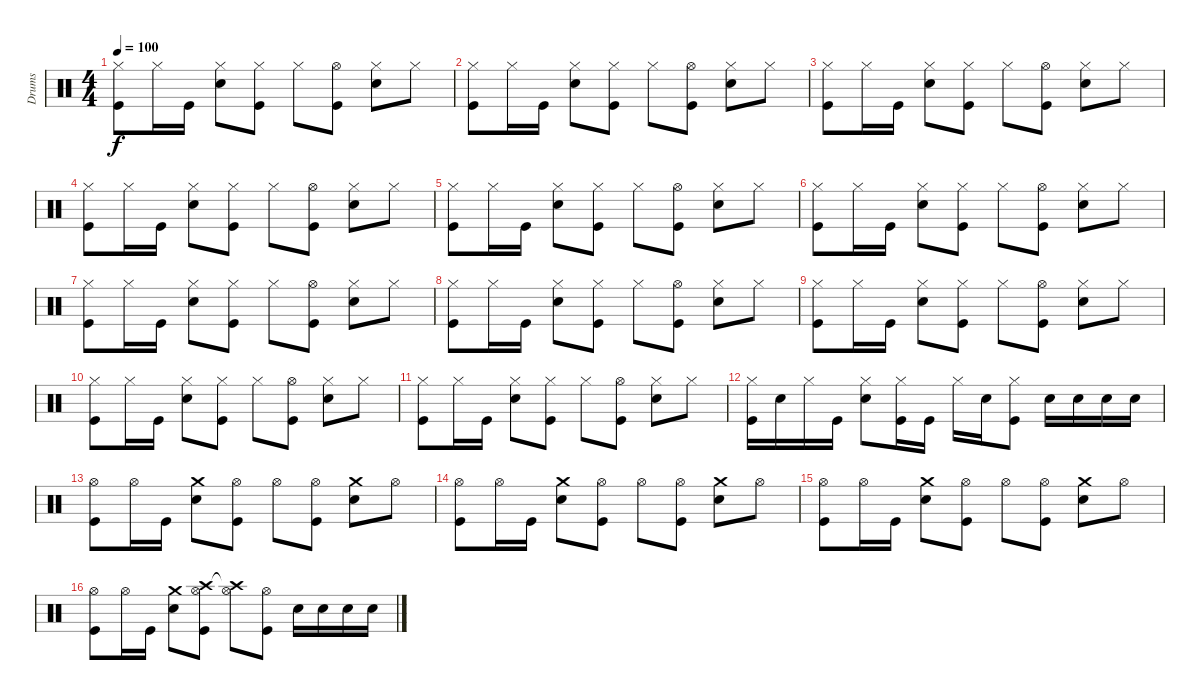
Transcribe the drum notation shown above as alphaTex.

\track ("Drums" "Drums") {instrument percussion}
\staff {score}
\articulation defaults
\ts (4 4)
\tempo 100
\clef neutral
\ks c
("Hi-Hat (closed)" "Kick (hit)").8{dy f} "Hi-Hat (closed)".16 "Kick (hit)".16 ("Hi-Hat (closed)" "Electric Snare (hit)").8 ("Hi-Hat (closed)" "Kick (hit)").8 "Hi-Hat (closed)".8 ("Hi-Hat (open)" "Kick (hit)").8 ("Hi-Hat (closed)" "Electric Snare (hit)").8 "Hi-Hat (closed)".8 |
("Hi-Hat (closed)" "Kick (hit)").8 "Hi-Hat (closed)".16 "Kick (hit)".16 ("Hi-Hat (closed)" "Electric Snare (hit)").8 ("Hi-Hat (closed)" "Kick (hit)").8 "Hi-Hat (closed)".8 ("Hi-Hat (open)" "Kick (hit)").8 ("Hi-Hat (closed)" "Electric Snare (hit)").8 "Hi-Hat (closed)".8 |
("Hi-Hat (closed)" "Kick (hit)").8 "Hi-Hat (closed)".16 "Kick (hit)".16 ("Hi-Hat (closed)" "Electric Snare (hit)").8 ("Hi-Hat (closed)" "Kick (hit)").8 "Hi-Hat (closed)".8 ("Hi-Hat (open)" "Kick (hit)").8 ("Hi-Hat (closed)" "Electric Snare (hit)").8 "Hi-Hat (closed)".8 |
("Hi-Hat (closed)" "Kick (hit)").8 "Hi-Hat (closed)".16 "Kick (hit)".16 ("Hi-Hat (closed)" "Electric Snare (hit)").8 ("Hi-Hat (closed)" "Kick (hit)").8 "Hi-Hat (closed)".8 ("Hi-Hat (open)" "Kick (hit)").8 ("Hi-Hat (closed)" "Electric Snare (hit)").8 "Hi-Hat (closed)".8 |
("Hi-Hat (closed)" "Kick (hit)").8 "Hi-Hat (closed)".16 "Kick (hit)".16 ("Hi-Hat (closed)" "Electric Snare (hit)").8 ("Hi-Hat (closed)" "Kick (hit)").8 "Hi-Hat (closed)".8 ("Hi-Hat (open)" "Kick (hit)").8 ("Hi-Hat (closed)" "Electric Snare (hit)").8 "Hi-Hat (closed)".8 |
("Hi-Hat (closed)" "Kick (hit)").8 "Hi-Hat (closed)".16 "Kick (hit)".16 ("Hi-Hat (closed)" "Electric Snare (hit)").8 ("Hi-Hat (closed)" "Kick (hit)").8 "Hi-Hat (closed)".8 ("Hi-Hat (open)" "Kick (hit)").8 ("Hi-Hat (closed)" "Electric Snare (hit)").8 "Hi-Hat (closed)".8 |
("Hi-Hat (closed)" "Kick (hit)").8 "Hi-Hat (closed)".16 "Kick (hit)".16 ("Hi-Hat (closed)" "Electric Snare (hit)").8 ("Hi-Hat (closed)" "Kick (hit)").8 "Hi-Hat (closed)".8 ("Hi-Hat (open)" "Kick (hit)").8 ("Hi-Hat (closed)" "Electric Snare (hit)").8 "Hi-Hat (closed)".8 |
("Hi-Hat (closed)" "Kick (hit)").8 "Hi-Hat (closed)".16 "Kick (hit)".16 ("Hi-Hat (closed)" "Electric Snare (hit)").8 ("Hi-Hat (closed)" "Kick (hit)").8 "Hi-Hat (closed)".8 ("Hi-Hat (open)" "Kick (hit)").8 ("Hi-Hat (closed)" "Electric Snare (hit)").8 "Hi-Hat (closed)".8 |
("Hi-Hat (closed)" "Kick (hit)").8 "Hi-Hat (closed)".16 "Kick (hit)".16 ("Hi-Hat (closed)" "Electric Snare (hit)").8 ("Hi-Hat (closed)" "Kick (hit)").8 "Hi-Hat (closed)".8 ("Hi-Hat (open)" "Kick (hit)").8 ("Hi-Hat (closed)" "Electric Snare (hit)").8 "Hi-Hat (closed)".8 |
("Hi-Hat (closed)" "Kick (hit)").8 "Hi-Hat (closed)".16 "Kick (hit)".16 ("Hi-Hat (closed)" "Electric Snare (hit)").8 ("Hi-Hat (closed)" "Kick (hit)").8 "Hi-Hat (closed)".8 ("Hi-Hat (open)" "Kick (hit)").8 ("Hi-Hat (closed)" "Electric Snare (hit)").8 "Hi-Hat (closed)".8 |
("Hi-Hat (closed)" "Kick (hit)").8 "Hi-Hat (closed)".16 "Kick (hit)".16 ("Hi-Hat (closed)" "Electric Snare (hit)").8 ("Hi-Hat (closed)" "Kick (hit)").8 "Hi-Hat (closed)".8 ("Hi-Hat (open)" "Kick (hit)").8 ("Hi-Hat (closed)" "Electric Snare (hit)").8 "Hi-Hat (closed)".8 |
("Hi-Hat (closed)" "Kick (hit)").16 "Electric Snare (hit)".16 "Hi-Hat (closed)".16 "Kick (hit)".16 ("Hi-Hat (closed)" "Electric Snare (hit)").8 ("Hi-Hat (closed)" "Kick (hit)").16 "Kick (hit)".16 "Hi-Hat (closed)".16 "Electric Snare (hit)".16 ("Hi-Hat (closed)" "Kick (hit)").8 "Electric Snare (hit)".16 "Electric Snare (hit)".16 "Electric Snare (hit)".16 "Electric Snare (hit)".16 |
("Hi-Hat (open)" "Kick (hit)").8 "Hi-Hat (open)".16 "Kick (hit)".16 ("Crash medium (hit)" "Electric Snare (hit)").8 ("Hi-Hat (open)" "Kick (hit)").8 "Hi-Hat (open)".8 ("Hi-Hat (open)" "Kick (hit)").8 ("Crash medium (hit)" "Electric Snare (hit)").8 "Hi-Hat (open)".8 |
("Hi-Hat (open)" "Kick (hit)").8 "Hi-Hat (open)".16 "Kick (hit)".16 ("Crash medium (hit)" "Electric Snare (hit)").8 ("Hi-Hat (open)" "Kick (hit)").8 "Hi-Hat (open)".8 ("Hi-Hat (open)" "Kick (hit)").8 ("Crash medium (hit)" "Electric Snare (hit)").8 "Hi-Hat (open)".8 |
("Hi-Hat (open)" "Kick (hit)").8 "Hi-Hat (open)".16 "Kick (hit)".16 ("Crash medium (hit)" "Electric Snare (hit)").8 ("Hi-Hat (open)" "Kick (hit)").8 "Hi-Hat (open)".8 ("Hi-Hat (open)" "Kick (hit)").8 ("Crash medium (hit)" "Electric Snare (hit)").8 "Hi-Hat (open)".8 |
("Hi-Hat (open)" "Kick (hit)").8 "Hi-Hat (open)".16 "Kick (hit)".16 ("Crash medium (hit)" "Electric Snare (hit)").8 ("Hi-Hat (open)" "Crash high (hit)" "Kick (hit)").8 ("Hi-Hat (open)" "Crash high (hit)"{t}).8 ("Hi-Hat (open)" "Kick (hit)").8 "Electric Snare (hit)".16 "Electric Snare (hit)".16 "Electric Snare (hit)".16 "Electric Snare (hit)".16
